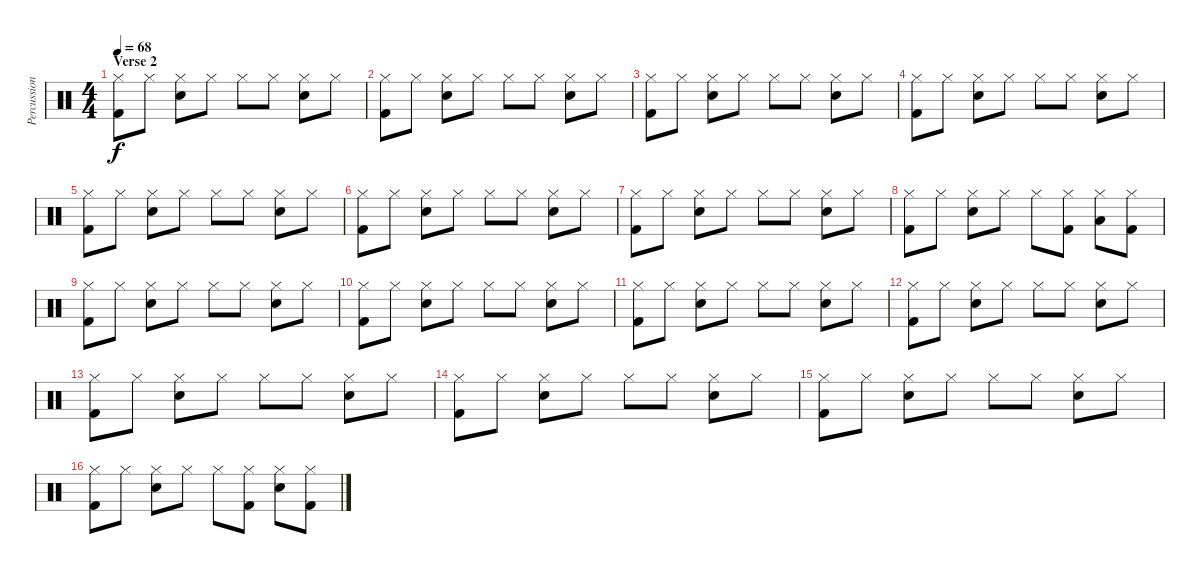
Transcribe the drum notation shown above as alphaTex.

\track ("Percussion" "Percussion") {instrument percussion}
\staff {score}
\articulation defaults
\ts (4 4)
\section ("" "Verse 2")
\tempo 68
\clef neutral
\ks c
("Hi-Hat (closed)" "Kick (hit) 2").8{dy f volume 11} "Hi-Hat (closed)".8 ("Hi-Hat (closed)" "Snare (hit) 2").8 "Hi-Hat (closed)".8 "Hi-Hat (closed)".8 "Hi-Hat (closed)".8 ("Hi-Hat (closed)" "Snare (hit) 2").8 "Hi-Hat (closed)".8 |
("Hi-Hat (closed)" "Kick (hit) 2").8 "Hi-Hat (closed)".8 ("Hi-Hat (closed)" "Snare (hit) 2").8 "Hi-Hat (closed)".8 "Hi-Hat (closed)".8 "Hi-Hat (closed)".8 ("Hi-Hat (closed)" "Snare (hit) 2").8 "Hi-Hat (closed)".8 |
("Hi-Hat (closed)" "Kick (hit) 2").8 "Hi-Hat (closed)".8 ("Hi-Hat (closed)" "Snare (hit) 2").8 "Hi-Hat (closed)".8 "Hi-Hat (closed)".8 "Hi-Hat (closed)".8 ("Hi-Hat (closed)" "Snare (hit) 2").8 "Hi-Hat (closed)".8 |
("Hi-Hat (closed)" "Kick (hit) 2").8 "Hi-Hat (closed)".8 ("Hi-Hat (closed)" "Snare (hit) 2").8 "Hi-Hat (closed)".8 "Hi-Hat (closed)".8 "Hi-Hat (closed)".8 ("Hi-Hat (closed)" "Snare (hit) 2").8 "Hi-Hat (closed)".8 |
("Hi-Hat (closed)" "Kick (hit) 2").8 "Hi-Hat (closed)".8 ("Hi-Hat (closed)" "Snare (hit) 2").8 "Hi-Hat (closed)".8 "Hi-Hat (closed)".8 "Hi-Hat (closed)".8 ("Hi-Hat (closed)" "Snare (hit) 2").8 "Hi-Hat (closed)".8 |
("Hi-Hat (closed)" "Kick (hit) 2").8 "Hi-Hat (closed)".8 ("Hi-Hat (closed)" "Snare (hit) 2").8 "Hi-Hat (closed)".8 "Hi-Hat (closed)".8 "Hi-Hat (closed)".8 ("Hi-Hat (closed)" "Snare (hit) 2").8 "Hi-Hat (closed)".8 |
("Hi-Hat (closed)" "Kick (hit) 2").8 "Hi-Hat (closed)".8 ("Hi-Hat (closed)" "Snare (hit) 2").8 "Hi-Hat (closed)".8 "Hi-Hat (closed)".8 "Hi-Hat (closed)".8 ("Hi-Hat (closed)" "Snare (hit) 2").8 "Hi-Hat (closed)".8 |
("Hi-Hat (closed)" "Kick (hit) 2").8 "Hi-Hat (closed)".8 ("Hi-Hat (closed)" "Snare (hit) 2").8 "Hi-Hat (closed)".8 "Hi-Hat (closed)".8 ("Hi-Hat (closed)" "Kick (hit) 2").8 ("Hi-Hat (closed)" "Low Floor Tom (hit)").8 ("Hi-Hat (closed)" "Kick (hit) 2").8 |
("Hi-Hat (closed)" "Kick (hit) 2").8 "Hi-Hat (closed)".8 ("Hi-Hat (closed)" "Snare (hit) 2").8 "Hi-Hat (closed)".8 "Hi-Hat (closed)".8 "Hi-Hat (closed)".8 ("Hi-Hat (closed)" "Snare (hit) 2").8 "Hi-Hat (closed)".8 |
("Hi-Hat (closed)" "Kick (hit) 2").8 "Hi-Hat (closed)".8 ("Hi-Hat (closed)" "Snare (hit) 2").8 "Hi-Hat (closed)".8 "Hi-Hat (closed)".8 "Hi-Hat (closed)".8 ("Hi-Hat (closed)" "Snare (hit) 2").8 "Hi-Hat (closed)".8 |
("Hi-Hat (closed)" "Kick (hit) 2").8 "Hi-Hat (closed)".8 ("Hi-Hat (closed)" "Snare (hit) 2").8 "Hi-Hat (closed)".8 "Hi-Hat (closed)".8 "Hi-Hat (closed)".8 ("Hi-Hat (closed)" "Snare (hit) 2").8 "Hi-Hat (closed)".8 |
("Hi-Hat (closed)" "Kick (hit) 2").8 "Hi-Hat (closed)".8 ("Hi-Hat (closed)" "Snare (hit) 2").8 "Hi-Hat (closed)".8 "Hi-Hat (closed)".8 "Hi-Hat (closed)".8 ("Hi-Hat (closed)" "Snare (hit) 2").8 "Hi-Hat (closed)".8 |
("Hi-Hat (closed)" "Kick (hit) 2").8 "Hi-Hat (closed)".8 ("Hi-Hat (closed)" "Snare (hit) 2").8 "Hi-Hat (closed)".8 "Hi-Hat (closed)".8 "Hi-Hat (closed)".8 ("Hi-Hat (closed)" "Snare (hit) 2").8 "Hi-Hat (closed)".8 |
("Hi-Hat (closed)" "Kick (hit) 2").8 "Hi-Hat (closed)".8 ("Hi-Hat (closed)" "Snare (hit) 2").8 "Hi-Hat (closed)".8 "Hi-Hat (closed)".8 "Hi-Hat (closed)".8 ("Hi-Hat (closed)" "Snare (hit) 2").8 "Hi-Hat (closed)".8 |
("Hi-Hat (closed)" "Kick (hit) 2").8 "Hi-Hat (closed)".8 ("Hi-Hat (closed)" "Snare (hit) 2").8 "Hi-Hat (closed)".8 "Hi-Hat (closed)".8 "Hi-Hat (closed)".8 ("Hi-Hat (closed)" "Snare (hit) 2").8 "Hi-Hat (closed)".8 |
("Hi-Hat (closed)" "Kick (hit) 2").8 "Hi-Hat (closed)".8 ("Hi-Hat (closed)" "Snare (hit) 2").8 "Hi-Hat (closed)".8 "Hi-Hat (closed)".8 ("Hi-Hat (closed)" "Kick (hit) 2").8 ("Hi-Hat (closed)" "Snare (hit) 2").8 ("Hi-Hat (closed)" "Kick (hit) 2").8
